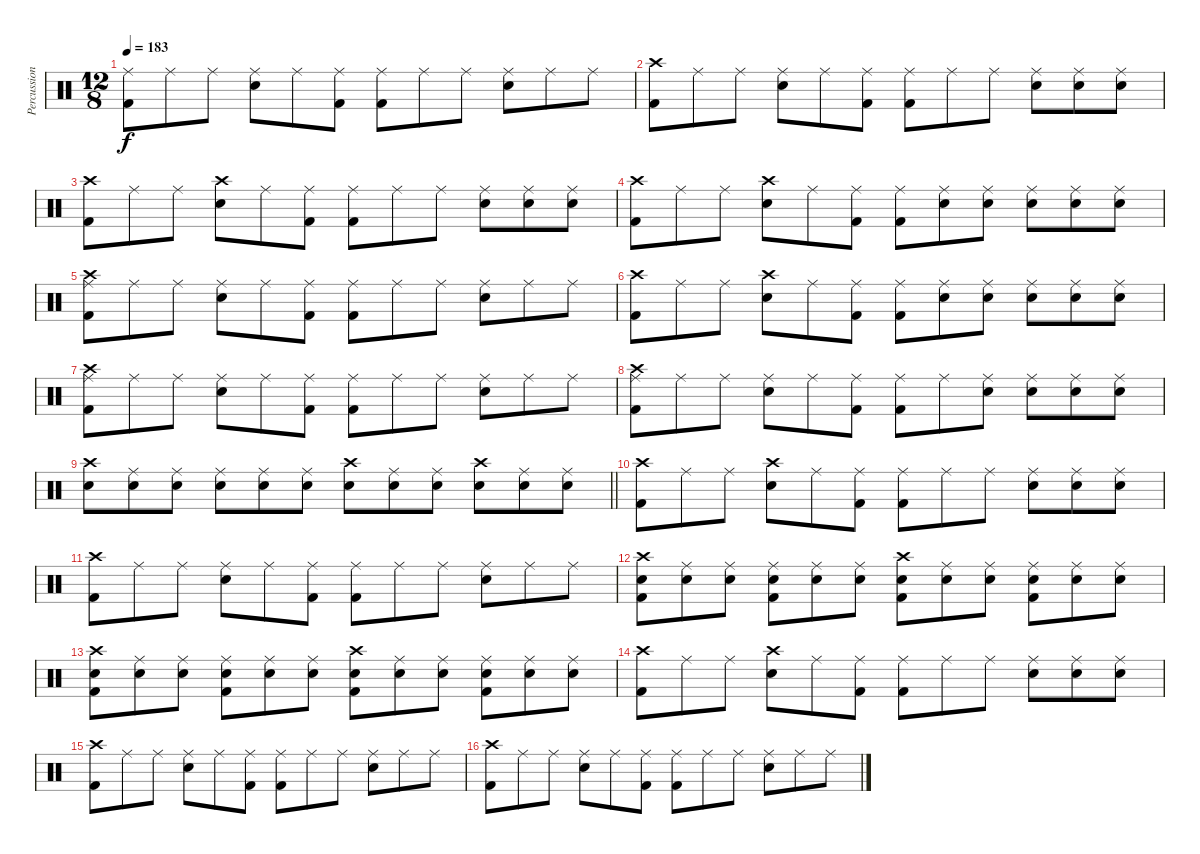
\track ("Percussion" "Percussion") {instrument percussion}
\staff {score}
\articulation defaults
\ts (12 8)
\tempo 183
\clef neutral
\ks c
("Ride (middle)" "Kick (hit) 2").8{dy f} "Ride (middle)".8 "Ride (middle)".8 ("Ride (middle)" "Snare (hit) 2").8 "Ride (middle)".8 ("Ride (middle)" "Kick (hit) 2").8 ("Ride (middle)" "Kick (hit) 2").8 "Ride (middle)".8 "Ride (middle)".8 ("Ride (middle)" "Snare (hit) 2").8 "Ride (middle)".8 "Ride (middle)".8 |
("Crash high (hit)" "Kick (hit) 2").8 "Ride (middle)".8 "Ride (middle)".8 ("Ride (middle)" "Snare (hit) 2").8 "Ride (middle)".8 ("Ride (middle)" "Kick (hit) 2").8 ("Ride (middle)" "Kick (hit) 2").8 "Ride (middle)".8 "Ride (middle)".8 ("Ride (middle)" "Snare (hit) 2").8 ("Ride (middle)" "Snare (hit) 2").8 ("Ride (middle)" "Snare (hit) 2").8 |
("Crash high (hit)" "Kick (hit) 2").8 "Ride (middle)".8 "Ride (middle)".8 ("Crash high (hit)" "Snare (hit) 2").8 "Ride (middle)".8 ("Ride (middle)" "Kick (hit) 2").8 ("Ride (middle)" "Kick (hit) 2").8 "Ride (middle)".8 "Ride (middle)".8 ("Ride (middle)" "Snare (hit) 2").8 ("Ride (middle)" "Snare (hit) 2").8 ("Ride (middle)" "Snare (hit) 2").8 |
("Crash high (hit)" "Kick (hit) 2").8 "Ride (middle)".8 "Ride (middle)".8 ("Crash high (hit)" "Snare (hit) 2").8 "Ride (middle)".8 ("Ride (middle)" "Kick (hit) 2").8 ("Ride (middle)" "Kick (hit) 2").8 ("Ride (middle)" "Snare (hit) 2").8 ("Ride (middle)" "Snare (hit) 2").8 ("Ride (middle)" "Snare (hit) 2").8 ("Ride (middle)" "Snare (hit) 2").8 ("Ride (middle)" "Snare (hit) 2").8 |
("Crash high (hit)" "Ride (middle)" "Kick (hit) 2").8 "Ride (middle)".8 "Ride (middle)".8 ("Ride (middle)" "Snare (hit) 2").8 "Ride (middle)".8 ("Ride (middle)" "Kick (hit) 2").8 ("Ride (middle)" "Kick (hit) 2").8 "Ride (middle)".8 "Ride (middle)".8 ("Ride (middle)" "Snare (hit) 2").8 "Ride (middle)".8 "Ride (middle)".8 |
("Crash high (hit)" "Kick (hit) 2").8 "Ride (middle)".8 "Ride (middle)".8 ("Crash high (hit)" "Snare (hit) 2").8 "Ride (middle)".8 ("Ride (middle)" "Kick (hit) 2").8 ("Ride (middle)" "Kick (hit) 2").8 ("Ride (middle)" "Snare (hit) 2").8 ("Ride (middle)" "Snare (hit) 2").8 ("Ride (middle)" "Snare (hit) 2").8 ("Ride (middle)" "Snare (hit) 2").8 ("Ride (middle)" "Snare (hit) 2").8 |
("Crash high (hit)" "Ride (middle)" "Kick (hit) 2").8 "Ride (middle)".8 "Ride (middle)".8 ("Ride (middle)" "Snare (hit) 2").8 "Ride (middle)".8 ("Ride (middle)" "Kick (hit) 2").8 ("Ride (middle)" "Kick (hit) 2").8 "Ride (middle)".8 "Ride (middle)".8 ("Ride (middle)" "Snare (hit) 2").8 "Ride (middle)".8 "Ride (middle)".8 |
("Crash high (hit)" "Ride (middle)" "Kick (hit) 2").8 "Ride (middle)".8 "Ride (middle)".8 ("Ride (middle)" "Snare (hit) 2").8 "Ride (middle)".8 ("Ride (middle)" "Kick (hit) 2").8 ("Ride (middle)" "Kick (hit) 2").8 "Ride (middle)".8 ("Ride (middle)" "Snare (hit) 2").8 ("Ride (middle)" "Snare (hit) 2").8 ("Ride (middle)" "Snare (hit) 2").8 ("Ride (middle)" "Snare (hit) 2").8 |
\barLineRight lightlight
("Crash high (hit)" "Snare (hit) 2").8 ("Ride (middle)" "Snare (hit) 2").8 ("Ride (middle)" "Snare (hit) 2").8 ("Ride (middle)" "Snare (hit) 2").8 ("Ride (middle)" "Snare (hit) 2").8 ("Ride (middle)" "Snare (hit) 2").8 ("Crash high (hit)" "Snare (hit) 2").8 ("Ride (middle)" "Snare (hit) 2").8 ("Ride (middle)" "Snare (hit) 2").8 ("Crash high (hit)" "Snare (hit) 2").8 ("Ride (middle)" "Snare (hit) 2").8 ("Ride (middle)" "Snare (hit) 2").8 |
("Crash high (hit)" "Kick (hit) 2").8 "Ride (middle)".8 "Ride (middle)".8 ("Crash high (hit)" "Snare (hit) 2").8 "Ride (middle)".8 ("Ride (middle)" "Kick (hit) 2").8 ("Ride (middle)" "Kick (hit) 2").8 "Ride (middle)".8 "Ride (middle)".8 ("Ride (middle)" "Snare (hit) 2").8 ("Ride (middle)" "Snare (hit) 2").8 ("Ride (middle)" "Snare (hit) 2").8 |
("Crash high (hit)" "Kick (hit) 2").8 "Ride (middle)".8 "Ride (middle)".8 ("Ride (middle)" "Snare (hit) 2").8 "Ride (middle)".8 ("Ride (middle)" "Kick (hit) 2").8 ("Ride (middle)" "Kick (hit) 2").8 "Ride (middle)".8 "Ride (middle)".8 ("Ride (middle)" "Snare (hit) 2").8 "Ride (middle)".8 "Ride (middle)".8 |
("Crash high (hit)" "Snare (hit) 2" "Kick (hit) 2").8 ("Ride (middle)" "Snare (hit) 2").8 ("Ride (middle)" "Snare (hit) 2").8 ("Ride (middle)" "Snare (hit) 2" "Kick (hit) 2").8 ("Ride (middle)" "Snare (hit) 2").8 ("Ride (middle)" "Snare (hit) 2").8 ("Crash high (hit)" "Snare (hit) 2" "Kick (hit) 2").8 ("Ride (middle)" "Snare (hit) 2").8 ("Ride (middle)" "Snare (hit) 2").8 ("Ride (middle)" "Snare (hit) 2" "Kick (hit) 2").8 ("Ride (middle)" "Snare (hit) 2").8 ("Ride (middle)" "Snare (hit) 2").8 |
("Crash high (hit)" "Snare (hit) 2" "Kick (hit) 2").8 ("Ride (middle)" "Snare (hit) 2").8 ("Ride (middle)" "Snare (hit) 2").8 ("Ride (middle)" "Snare (hit) 2" "Kick (hit) 2").8 ("Ride (middle)" "Snare (hit) 2").8 ("Ride (middle)" "Snare (hit) 2").8 ("Crash high (hit)" "Snare (hit) 2" "Kick (hit) 2").8 ("Ride (middle)" "Snare (hit) 2").8 ("Ride (middle)" "Snare (hit) 2").8 ("Ride (middle)" "Snare (hit) 2" "Kick (hit) 2").8 ("Ride (middle)" "Snare (hit) 2").8 ("Ride (middle)" "Snare (hit) 2").8 |
("Crash high (hit)" "Kick (hit) 2").8 "Ride (middle)".8 "Ride (middle)".8 ("Crash high (hit)" "Snare (hit) 2").8 "Ride (middle)".8 ("Ride (middle)" "Kick (hit) 2").8 ("Ride (middle)" "Kick (hit) 2").8 "Ride (middle)".8 "Ride (middle)".8 ("Ride (middle)" "Snare (hit) 2").8 ("Ride (middle)" "Snare (hit) 2").8 ("Ride (middle)" "Snare (hit) 2").8 |
("Crash high (hit)" "Kick (hit) 2").8 "Ride (middle)".8 "Ride (middle)".8 ("Ride (middle)" "Snare (hit) 2").8 "Ride (middle)".8 ("Ride (middle)" "Kick (hit) 2").8 ("Ride (middle)" "Kick (hit) 2").8 "Ride (middle)".8 "Ride (middle)".8 ("Ride (middle)" "Snare (hit) 2").8 "Ride (middle)".8 "Ride (middle)".8 |
("Crash high (hit)" "Kick (hit) 2").8 "Ride (middle)".8 "Ride (middle)".8 ("Ride (middle)" "Snare (hit) 2").8 "Ride (middle)".8 ("Ride (middle)" "Kick (hit) 2").8 ("Ride (middle)" "Kick (hit) 2").8 "Ride (middle)".8 "Ride (middle)".8 ("Ride (middle)" "Snare (hit) 2").8 "Ride (middle)".8 "Ride (middle)".8
